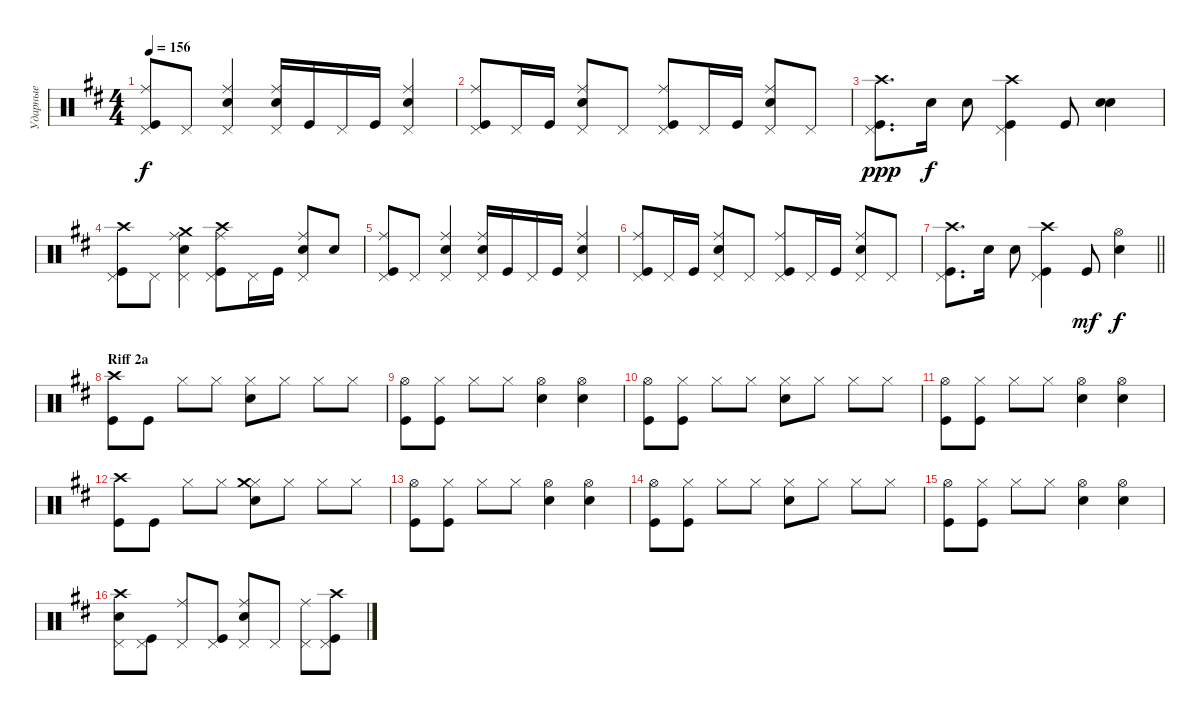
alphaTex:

\track ("Ударные" "Ударные") {instrument percussion}
\staff {score}
\articulation defaults
\ts (4 4)
\tempo 156
\clef neutral
\ks bminor
("Kick (hit)" "Pedal Hi-Hat (hit)" "Ride (middle)").8{dy f} "Pedal Hi-Hat (hit)".8 ("Pedal Hi-Hat (hit)" "Snare (hit) 2" "Ride (middle)").4 ("Snare (hit) 2" "Pedal Hi-Hat (hit)" "Ride (middle)").16 "Kick (hit)".16 "Pedal Hi-Hat (hit)".16 "Kick (hit)".16 ("Snare (hit) 2" "Pedal Hi-Hat (hit)" "Ride (middle)").4 |
("Kick (hit)" "Pedal Hi-Hat (hit)" "Ride (middle)").8 "Pedal Hi-Hat (hit)".16 "Kick (hit)".16 ("Snare (hit) 2" "Pedal Hi-Hat (hit)" "Ride (middle)").8 "Pedal Hi-Hat (hit)".8 ("Kick (hit)" "Pedal Hi-Hat (hit)" "Ride (middle)").8 "Pedal Hi-Hat (hit)".16 "Kick (hit)".16 ("Pedal Hi-Hat (hit)" "Snare (hit) 2" "Ride (middle)").8 "Pedal Hi-Hat (hit)".8 |
("Kick (hit)" "Crash high (hit)" "Pedal Hi-Hat (hit)").8{d dy ppp} "Snare (hit) 2".16{dy f} "Snare (hit) 2".8 ("Kick (hit)" "Crash high (hit)" "Pedal Hi-Hat (hit)").4 "Kick (hit)".8 ("Snare (hit) 2" "Snare (hit) 2").4{bd 240} |
("Kick (hit)" "Crash high (hit)" "Pedal Hi-Hat (hit)").8 "Pedal Hi-Hat (hit)".8 ("Snare (hit) 2" "Pedal Hi-Hat (hit)" "Ride (middle)" "Crash medium (hit)").4 ("Kick (hit)" "Pedal Hi-Hat (hit)" "Ride (middle)" "Crash high (hit)").8 "Pedal Hi-Hat (hit)".16 "Kick (hit)".16 ("Snare (hit) 2" "Pedal Hi-Hat (hit)" "Ride (middle)").8 "Snare (hit) 2".8 |
("Kick (hit)" "Pedal Hi-Hat (hit)" "Ride (middle)").8 "Pedal Hi-Hat (hit)".8 ("Pedal Hi-Hat (hit)" "Snare (hit) 2" "Ride (middle)").4 ("Snare (hit) 2" "Pedal Hi-Hat (hit)" "Ride (middle)").16 "Kick (hit)".16 "Pedal Hi-Hat (hit)".16 "Kick (hit)".16 ("Snare (hit) 2" "Pedal Hi-Hat (hit)" "Ride (middle)").4 |
("Kick (hit)" "Pedal Hi-Hat (hit)" "Ride (middle)").8 "Pedal Hi-Hat (hit)".16 "Kick (hit)".16 ("Snare (hit) 2" "Pedal Hi-Hat (hit)" "Ride (middle)").8 "Pedal Hi-Hat (hit)".8 ("Kick (hit)" "Pedal Hi-Hat (hit)" "Ride (middle)").8 "Pedal Hi-Hat (hit)".16 "Kick (hit)".16 ("Pedal Hi-Hat (hit)" "Snare (hit) 2" "Ride (middle)").8 "Pedal Hi-Hat (hit)".8 |
\barLineRight lightlight
("Kick (hit)" "Crash high (hit)" "Pedal Hi-Hat (hit)").8{d} "Snare (hit) 2".16 "Snare (hit) 2".8 ("Kick (hit)" "Crash high (hit)" "Pedal Hi-Hat (hit)").4 "Kick (hit)".8{dy mf} ("Snare (hit) 2" "Hi-Hat (open)").4{dy f} |
\section ("" "Riff 2a")
("Kick (hit)" "Crash high (hit)").8 "Kick (hit)".8 "Hi-Hat (closed)".8 "Hi-Hat (closed)".8 ("Hi-Hat (closed)" "Snare (hit) 2").8 "Hi-Hat (closed)".8 "Hi-Hat (closed)".8 "Hi-Hat (closed)".8 |
("Hi-Hat (open)" "Kick (hit)").8 ("Hi-Hat (closed)" "Kick (hit)").8 "Hi-Hat (closed)".8 "Hi-Hat (closed)".8 ("Hi-Hat (open)" "Snare (hit) 2").4 ("Hi-Hat (open)" "Snare (hit) 2").4 |
("Kick (hit)" "Hi-Hat (open)").8 ("Kick (hit)" "Hi-Hat (closed)").8 "Hi-Hat (closed)".8 "Hi-Hat (closed)".8 ("Hi-Hat (closed)" "Snare (hit) 2").8 "Hi-Hat (closed)".8 "Hi-Hat (closed)".8 "Hi-Hat (closed)".8 |
("Hi-Hat (open)" "Kick (hit)").8 ("Hi-Hat (closed)" "Kick (hit)").8 "Hi-Hat (closed)".8 "Hi-Hat (closed)".8 ("Hi-Hat (open)" "Snare (hit) 2").4 ("Hi-Hat (open)" "Snare (hit) 2").4 |
("Kick (hit)" "Crash high (hit)").8 "Kick (hit)".8 "Hi-Hat (closed)".8 "Hi-Hat (closed)".8 ("Hi-Hat (closed)" "Snare (hit) 2" "Crash medium (hit)").8 "Hi-Hat (closed)".8 "Hi-Hat (closed)".8 "Hi-Hat (closed)".8 |
("Hi-Hat (open)" "Kick (hit)").8 ("Hi-Hat (closed)" "Kick (hit)").8 "Hi-Hat (closed)".8 "Hi-Hat (closed)".8 ("Hi-Hat (open)" "Snare (hit) 2").4 ("Hi-Hat (open)" "Snare (hit) 2").4 |
("Kick (hit)" "Hi-Hat (open)").8 ("Kick (hit)" "Hi-Hat (closed)").8 "Hi-Hat (closed)".8 "Hi-Hat (closed)".8 ("Hi-Hat (closed)" "Snare (hit) 2").8 "Hi-Hat (closed)".8 "Hi-Hat (closed)".8 "Hi-Hat (closed)".8 |
("Hi-Hat (open)" "Kick (hit)").8 ("Hi-Hat (closed)" "Kick (hit)").8 "Hi-Hat (closed)".8 "Hi-Hat (closed)".8 ("Hi-Hat (open)" "Snare (hit) 2").4 ("Hi-Hat (open)" "Snare (hit) 2").4 |
("Crash high (hit)" "Snare (hit) 2" "Pedal Hi-Hat (hit)").8 ("Kick (hit)" "Pedal Hi-Hat (hit)").8 ("Ride (middle)" "Pedal Hi-Hat (hit)").8 ("Kick (hit)" "Pedal Hi-Hat (hit)").8 ("Ride (middle)" "Snare (hit) 2" "Pedal Hi-Hat (hit)").8 "Pedal Hi-Hat (hit)".8 ("Pedal Hi-Hat (hit)" "Ride (middle)").8 ("Kick (hit)" "Crash high (hit)" "Pedal Hi-Hat (hit)").8
